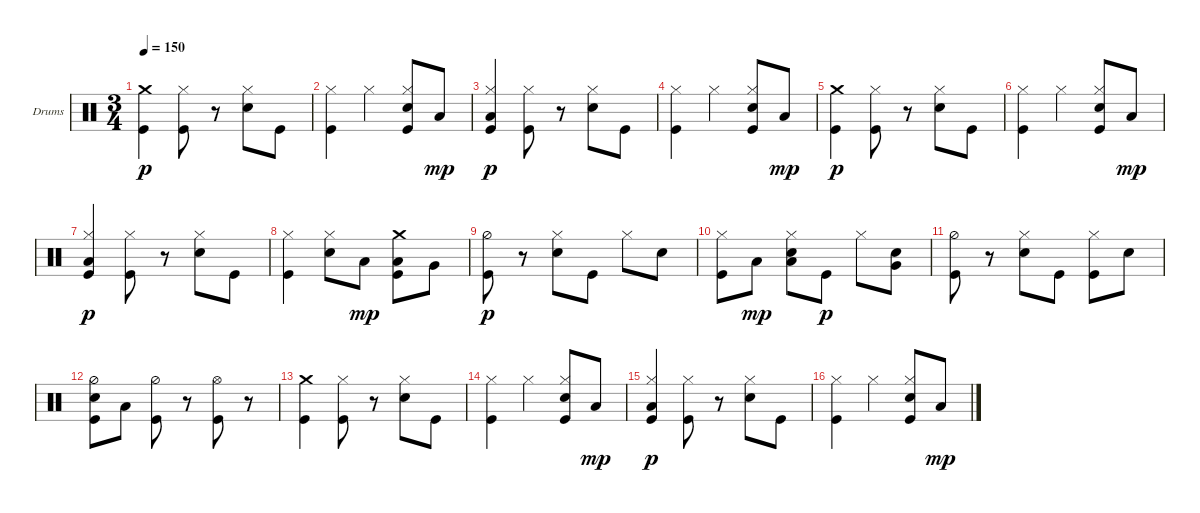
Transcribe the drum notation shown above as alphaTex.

\bracketExtendMode groupsimilarinstruments
\firstSystemTrackNameOrientation horizontal
\otherSystemsTrackNameOrientation horizontal
\track ("Drumkit" "Drums") {instrument percussion}
\staff {score}
\articulation defaults
\ts (3 4)
\tempo 150
\clef neutral
\ks c
("Crash medium (hit)" "Kick (hit)").4{dy p} ("Kick (hit)" "Hi-Hat (closed)").8 r.8 ("Hi-Hat (closed)" "Snare (hit) 2").8 "Kick (hit)".8 |
("Kick (hit)" "Hi-Hat (closed)").4 "Hi-Hat (closed)".4 ("Kick (hit)" "Hi-Hat (closed)" "Snare (hit) 2").8 "Low Tom (hit)".8{dy mp} |
("Kick (hit)" "Hi-Hat (closed)" "Low Tom (hit)").4{dy p} ("Kick (hit)" "Hi-Hat (closed)").8 r.8 ("Hi-Hat (closed)" "Snare (hit) 2").8 "Kick (hit)".8 |
("Kick (hit)" "Hi-Hat (closed)").4 "Hi-Hat (closed)".4 ("Kick (hit)" "Hi-Hat (closed)" "Snare (hit) 2").8 "Low Tom (hit)".8{dy mp} |
("Crash medium (hit)" "Kick (hit)").4{dy p} ("Kick (hit)" "Hi-Hat (closed)").8 r.8 ("Hi-Hat (closed)" "Snare (hit) 2").8 "Kick (hit)".8 |
("Kick (hit)" "Hi-Hat (closed)").4 "Hi-Hat (closed)".4 ("Kick (hit)" "Hi-Hat (closed)" "Snare (hit) 2").8 "Low Tom (hit)".8{dy mp} |
("Kick (hit)" "Hi-Hat (closed)" "Low Tom (hit)").4{dy p} ("Kick (hit)" "Hi-Hat (closed)").8 r.8 ("Hi-Hat (closed)" "Snare (hit) 2").8 "Kick (hit)".8 |
("Kick (hit)" "Hi-Hat (closed)").4 ("Hi-Hat (closed)" "Snare (hit) 2").8 "Low Tom (hit)".8{dy mp} ("Kick (hit)" "Crash medium (hit)" "Low Tom (hit)").8 "Very Low Tom (hit)".8 |
("Kick (hit)" "Hi-Hat (half)").8{dy p} r.8 ("Snare (hit) 2" "Hi-Hat (closed)").8 "Kick (hit)".8 "Hi-Hat (closed)".8 "Snare (hit) 2".8 |
("Kick (hit)" "Hi-Hat (closed)").8 "Low Tom (hit)".8{dy mp} ("Snare (hit) 2" "Hi-Hat (closed)" "Low Tom (hit)").8 "Kick (hit)".8{dy p} "Hi-Hat (closed)".8 ("Snare (hit) 2" "Very Low Tom (hit)").8 |
("Kick (hit)" "Hi-Hat (half)").8 r.8 ("Snare (hit) 2" "Hi-Hat (closed)").8 "Kick (hit)".8 ("Kick (hit)" "Hi-Hat (closed)").8 "Snare (hit) 2".8 |
("Snare (hit) 2" "Kick (hit)" "Hi-Hat (half)").8 "Low Tom (hit)".8 ("Kick (hit)" "Hi-Hat (half)").8 r.8 ("Kick (hit)" "Hi-Hat (open)").8 r.8 |
("Crash medium (hit)" "Kick (hit)").4 ("Kick (hit)" "Hi-Hat (closed)").8 r.8 ("Hi-Hat (closed)" "Snare (hit) 2").8 "Kick (hit)".8 |
("Kick (hit)" "Hi-Hat (closed)").4 "Hi-Hat (closed)".4 ("Kick (hit)" "Hi-Hat (closed)" "Snare (hit) 2").8 "Low Tom (hit)".8{dy mp} |
("Kick (hit)" "Hi-Hat (closed)" "Low Tom (hit)").4{dy p} ("Kick (hit)" "Hi-Hat (closed)").8 r.8 ("Hi-Hat (closed)" "Snare (hit) 2").8 "Kick (hit)".8 |
("Kick (hit)" "Hi-Hat (closed)").4 "Hi-Hat (closed)".4 ("Kick (hit)" "Hi-Hat (closed)" "Snare (hit) 2").8 "Low Tom (hit)".8{dy mp}
